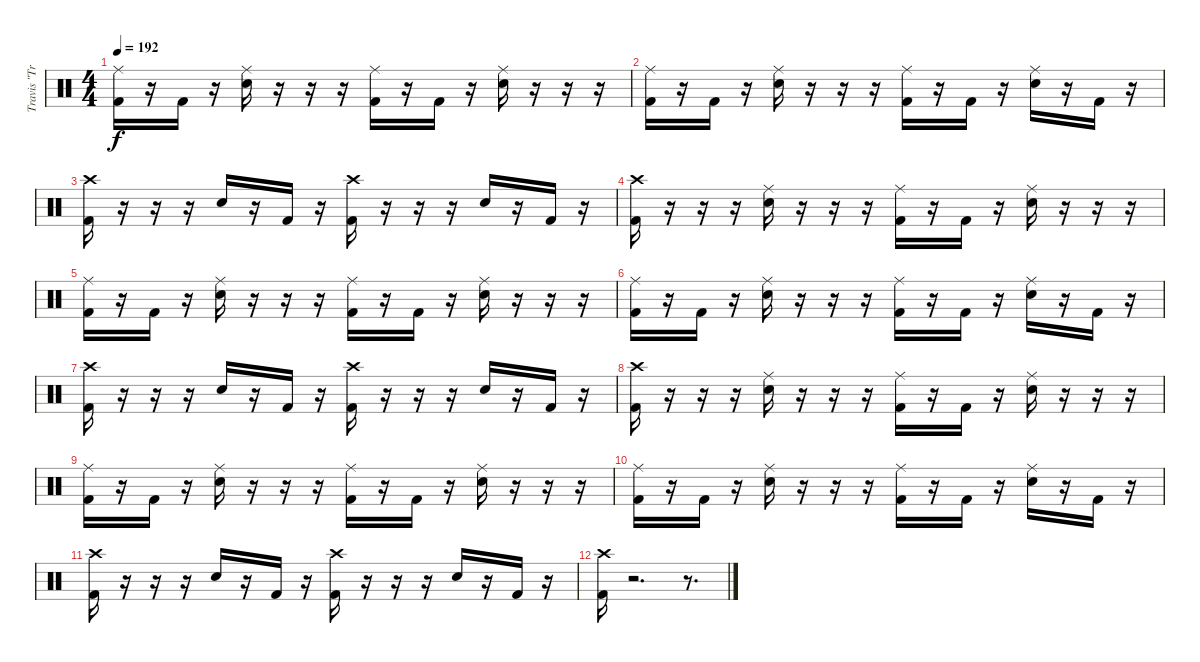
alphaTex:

\track ("Travis \"Trevor\" Barker" "Travis \"Tr") {instrument percussion}
\staff {score}
\articulation defaults
\ts (4 4)
\tempo 192
\clef neutral
\ks c
("Ride (middle)" "Kick (hit) 2").16{dy f} r.16 "Kick (hit) 2".16 r.16 ("Ride (middle)" "Snare (hit) 2").16 r.16 r.16 r.16 ("Ride (middle)" "Kick (hit) 2").16 r.16 "Kick (hit) 2".16 r.16 ("Ride (middle)" "Snare (hit) 2").16 r.16 r.16 r.16 |
("Ride (middle)" "Kick (hit) 2").16 r.16 "Kick (hit) 2".16 r.16 ("Ride (middle)" "Snare (hit) 2").16 r.16 r.16 r.16 ("Ride (middle)" "Kick (hit) 2").16 r.16 "Kick (hit) 2".16 r.16 ("Ride (middle)" "Snare (hit) 2").16 r.16 "Kick (hit) 2".16 r.16 |
("Crash high (hit)" "Kick (hit) 2").16 r.16 r.16 r.16 "Snare (hit) 2".16 r.16 "Kick (hit) 2".16 r.16 ("Crash high (hit)" "Kick (hit) 2").16 r.16 r.16 r.16 "Snare (hit) 2".16 r.16 "Kick (hit) 2".16 r.16 |
("Crash high (hit)" "Kick (hit) 2").16 r.16 r.16 r.16 ("Ride (middle)" "Snare (hit) 2").16 r.16 r.16 r.16 ("Ride (middle)" "Kick (hit) 2").16 r.16 "Kick (hit) 2".16 r.16 ("Ride (middle)" "Snare (hit) 2").16 r.16 r.16 r.16 |
("Ride (middle)" "Kick (hit) 2").16 r.16 "Kick (hit) 2".16 r.16 ("Ride (middle)" "Snare (hit) 2").16 r.16 r.16 r.16 ("Ride (middle)" "Kick (hit) 2").16 r.16 "Kick (hit) 2".16 r.16 ("Ride (middle)" "Snare (hit) 2").16 r.16 r.16 r.16 |
("Ride (middle)" "Kick (hit) 2").16 r.16 "Kick (hit) 2".16 r.16 ("Ride (middle)" "Snare (hit) 2").16 r.16 r.16 r.16 ("Ride (middle)" "Kick (hit) 2").16 r.16 "Kick (hit) 2".16 r.16 ("Ride (middle)" "Snare (hit) 2").16 r.16 "Kick (hit) 2".16 r.16 |
("Crash high (hit)" "Kick (hit) 2").16 r.16 r.16 r.16 "Snare (hit) 2".16 r.16 "Kick (hit) 2".16 r.16 ("Crash high (hit)" "Kick (hit) 2").16 r.16 r.16 r.16 "Snare (hit) 2".16 r.16 "Kick (hit) 2".16 r.16 |
("Crash high (hit)" "Kick (hit) 2").16 r.16 r.16 r.16 ("Ride (middle)" "Snare (hit) 2").16 r.16 r.16 r.16 ("Ride (middle)" "Kick (hit) 2").16 r.16 "Kick (hit) 2".16 r.16 ("Ride (middle)" "Snare (hit) 2").16 r.16 r.16 r.16 |
("Ride (middle)" "Kick (hit) 2").16 r.16 "Kick (hit) 2".16 r.16 ("Ride (middle)" "Snare (hit) 2").16 r.16 r.16 r.16 ("Ride (middle)" "Kick (hit) 2").16 r.16 "Kick (hit) 2".16 r.16 ("Ride (middle)" "Snare (hit) 2").16 r.16 r.16 r.16 |
("Ride (middle)" "Kick (hit) 2").16 r.16 "Kick (hit) 2".16 r.16 ("Ride (middle)" "Snare (hit) 2").16 r.16 r.16 r.16 ("Ride (middle)" "Kick (hit) 2").16 r.16 "Kick (hit) 2".16 r.16 ("Ride (middle)" "Snare (hit) 2").16 r.16 "Kick (hit) 2".16 r.16 |
("Crash high (hit)" "Kick (hit) 2").16 r.16 r.16 r.16 "Snare (hit) 2".16 r.16 "Kick (hit) 2".16 r.16 ("Crash high (hit)" "Kick (hit) 2").16 r.16 r.16 r.16 "Snare (hit) 2".16 r.16 "Kick (hit) 2".16 r.16 |
("Crash high (hit)" "Kick (hit) 2").16 r.2{d} r.8{d}
